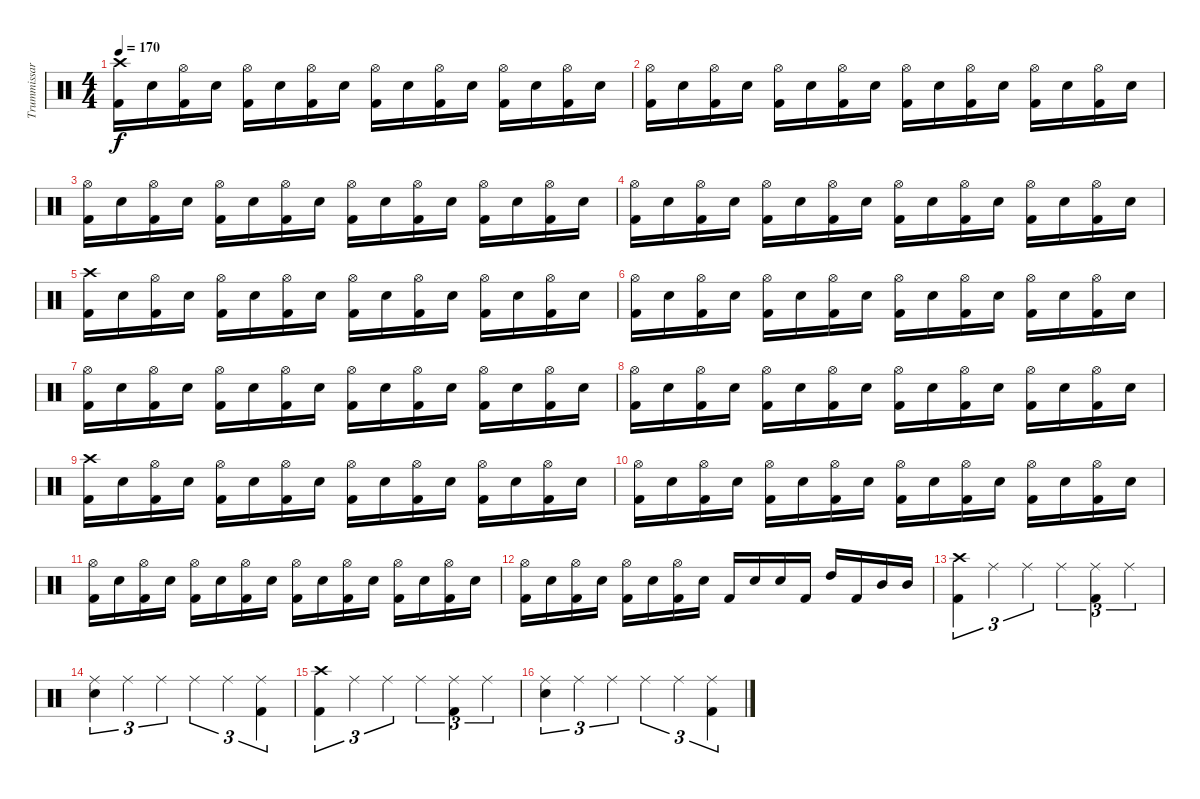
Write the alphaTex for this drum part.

\track ("Trummissar!!" "Trummissar") {instrument percussion}
\staff {score}
\articulation defaults
\ts (4 4)
\tempo 170
\clef neutral
\ks c
("Crash high (hit)" "Kick (hit) 2").16{dy f} "Electric Snare (hit)".16 ("Hi-Hat (open)" "Kick (hit) 2").16 "Electric Snare (hit)".16 ("Hi-Hat (open)" "Kick (hit) 2").16 "Electric Snare (hit)".16 ("Hi-Hat (open)" "Kick (hit) 2").16 "Electric Snare (hit)".16 ("Hi-Hat (open)" "Kick (hit) 2").16 "Electric Snare (hit)".16 ("Hi-Hat (open)" "Kick (hit) 2").16 "Electric Snare (hit)".16 ("Hi-Hat (open)" "Kick (hit) 2").16 "Electric Snare (hit)".16 ("Hi-Hat (open)" "Kick (hit) 2").16 "Electric Snare (hit)".16 |
("Hi-Hat (open)" "Kick (hit) 2").16 "Electric Snare (hit)".16 ("Hi-Hat (open)" "Kick (hit) 2").16 "Electric Snare (hit)".16 ("Hi-Hat (open)" "Kick (hit) 2").16 "Electric Snare (hit)".16 ("Hi-Hat (open)" "Kick (hit) 2").16 "Electric Snare (hit)".16 ("Hi-Hat (open)" "Kick (hit) 2").16 "Electric Snare (hit)".16 ("Hi-Hat (open)" "Kick (hit) 2").16 "Electric Snare (hit)".16 ("Hi-Hat (open)" "Kick (hit) 2").16 "Electric Snare (hit)".16 ("Hi-Hat (open)" "Kick (hit) 2").16 "Electric Snare (hit)".16 |
("Hi-Hat (open)" "Kick (hit) 2").16 "Electric Snare (hit)".16 ("Hi-Hat (open)" "Kick (hit) 2").16 "Electric Snare (hit)".16 ("Hi-Hat (open)" "Kick (hit) 2").16 "Electric Snare (hit)".16 ("Hi-Hat (open)" "Kick (hit) 2").16 "Electric Snare (hit)".16 ("Hi-Hat (open)" "Kick (hit) 2").16 "Electric Snare (hit)".16 ("Hi-Hat (open)" "Kick (hit) 2").16 "Electric Snare (hit)".16 ("Hi-Hat (open)" "Kick (hit) 2").16 "Electric Snare (hit)".16 ("Hi-Hat (open)" "Kick (hit) 2").16 "Electric Snare (hit)".16 |
("Hi-Hat (open)" "Kick (hit) 2").16 "Electric Snare (hit)".16 ("Hi-Hat (open)" "Kick (hit) 2").16 "Electric Snare (hit)".16 ("Hi-Hat (open)" "Kick (hit) 2").16 "Electric Snare (hit)".16 ("Hi-Hat (open)" "Kick (hit) 2").16 "Electric Snare (hit)".16 ("Hi-Hat (open)" "Kick (hit) 2").16 "Electric Snare (hit)".16 ("Hi-Hat (open)" "Kick (hit) 2").16 "Electric Snare (hit)".16 ("Hi-Hat (open)" "Kick (hit) 2").16 "Electric Snare (hit)".16 ("Hi-Hat (open)" "Kick (hit) 2").16 "Electric Snare (hit)".16 |
("Crash high (hit)" "Kick (hit) 2").16 "Electric Snare (hit)".16 ("Hi-Hat (open)" "Kick (hit) 2").16 "Electric Snare (hit)".16 ("Hi-Hat (open)" "Kick (hit) 2").16 "Electric Snare (hit)".16 ("Hi-Hat (open)" "Kick (hit) 2").16 "Electric Snare (hit)".16 ("Hi-Hat (open)" "Kick (hit) 2").16 "Electric Snare (hit)".16 ("Hi-Hat (open)" "Kick (hit) 2").16 "Electric Snare (hit)".16 ("Hi-Hat (open)" "Kick (hit) 2").16 "Electric Snare (hit)".16 ("Hi-Hat (open)" "Kick (hit) 2").16 "Electric Snare (hit)".16 |
("Hi-Hat (open)" "Kick (hit) 2").16 "Electric Snare (hit)".16 ("Hi-Hat (open)" "Kick (hit) 2").16 "Electric Snare (hit)".16 ("Hi-Hat (open)" "Kick (hit) 2").16 "Electric Snare (hit)".16 ("Hi-Hat (open)" "Kick (hit) 2").16 "Electric Snare (hit)".16 ("Hi-Hat (open)" "Kick (hit) 2").16 "Electric Snare (hit)".16 ("Hi-Hat (open)" "Kick (hit) 2").16 "Electric Snare (hit)".16 ("Hi-Hat (open)" "Kick (hit) 2").16 "Electric Snare (hit)".16 ("Hi-Hat (open)" "Kick (hit) 2").16 "Electric Snare (hit)".16 |
("Hi-Hat (open)" "Kick (hit) 2").16 "Electric Snare (hit)".16 ("Hi-Hat (open)" "Kick (hit) 2").16 "Electric Snare (hit)".16 ("Hi-Hat (open)" "Kick (hit) 2").16 "Electric Snare (hit)".16 ("Hi-Hat (open)" "Kick (hit) 2").16 "Electric Snare (hit)".16 ("Hi-Hat (open)" "Kick (hit) 2").16 "Electric Snare (hit)".16 ("Hi-Hat (open)" "Kick (hit) 2").16 "Electric Snare (hit)".16 ("Hi-Hat (open)" "Kick (hit) 2").16 "Electric Snare (hit)".16 ("Hi-Hat (open)" "Kick (hit) 2").16 "Electric Snare (hit)".16 |
("Hi-Hat (open)" "Kick (hit) 2").16 "Electric Snare (hit)".16 ("Hi-Hat (open)" "Kick (hit) 2").16 "Electric Snare (hit)".16 ("Hi-Hat (open)" "Kick (hit) 2").16 "Electric Snare (hit)".16 ("Hi-Hat (open)" "Kick (hit) 2").16 "Electric Snare (hit)".16 ("Hi-Hat (open)" "Kick (hit) 2").16 "Electric Snare (hit)".16 ("Hi-Hat (open)" "Kick (hit) 2").16 "Electric Snare (hit)".16 ("Hi-Hat (open)" "Kick (hit) 2").16 "Electric Snare (hit)".16 ("Hi-Hat (open)" "Kick (hit) 2").16 "Electric Snare (hit)".16 |
("Crash high (hit)" "Kick (hit) 2").16 "Electric Snare (hit)".16 ("Hi-Hat (open)" "Kick (hit) 2").16 "Electric Snare (hit)".16 ("Hi-Hat (open)" "Kick (hit) 2").16 "Electric Snare (hit)".16 ("Hi-Hat (open)" "Kick (hit) 2").16 "Electric Snare (hit)".16 ("Hi-Hat (open)" "Kick (hit) 2").16 "Electric Snare (hit)".16 ("Hi-Hat (open)" "Kick (hit) 2").16 "Electric Snare (hit)".16 ("Hi-Hat (open)" "Kick (hit) 2").16 "Electric Snare (hit)".16 ("Hi-Hat (open)" "Kick (hit) 2").16 "Electric Snare (hit)".16 |
("Hi-Hat (open)" "Kick (hit) 2").16 "Electric Snare (hit)".16 ("Hi-Hat (open)" "Kick (hit) 2").16 "Electric Snare (hit)".16 ("Hi-Hat (open)" "Kick (hit) 2").16 "Electric Snare (hit)".16 ("Hi-Hat (open)" "Kick (hit) 2").16 "Electric Snare (hit)".16 ("Hi-Hat (open)" "Kick (hit) 2").16 "Electric Snare (hit)".16 ("Hi-Hat (open)" "Kick (hit) 2").16 "Electric Snare (hit)".16 ("Hi-Hat (open)" "Kick (hit) 2").16 "Electric Snare (hit)".16 ("Hi-Hat (open)" "Kick (hit) 2").16 "Electric Snare (hit)".16 |
("Hi-Hat (open)" "Kick (hit) 2").16 "Electric Snare (hit)".16 ("Hi-Hat (open)" "Kick (hit) 2").16 "Electric Snare (hit)".16 ("Hi-Hat (open)" "Kick (hit) 2").16 "Electric Snare (hit)".16 ("Hi-Hat (open)" "Kick (hit) 2").16 "Electric Snare (hit)".16 ("Hi-Hat (open)" "Kick (hit) 2").16 "Electric Snare (hit)".16 ("Hi-Hat (open)" "Kick (hit) 2").16 "Electric Snare (hit)".16 ("Hi-Hat (open)" "Kick (hit) 2").16 "Electric Snare (hit)".16 ("Hi-Hat (open)" "Kick (hit) 2").16 "Electric Snare (hit)".16 |
("Hi-Hat (open)" "Kick (hit) 2").16 "Electric Snare (hit)".16 ("Hi-Hat (open)" "Kick (hit) 2").16 "Electric Snare (hit)".16 ("Hi-Hat (open)" "Kick (hit) 2").16 "Electric Snare (hit)".16 ("Hi-Hat (open)" "Kick (hit) 2").16 "Electric Snare (hit)".16 "Kick (hit) 2".16 "Electric Snare (hit)".16 "Electric Snare (hit)".16 "Kick (hit) 2".16 "High Tom (hit)".16 "Kick (hit) 2".16 "Mid Tom (hit)".16 "Mid Tom (hit)".16 |
("Crash high (hit)" "Kick (hit) 2").4{tu (3 2)} "Ride (middle)".4{tu (3 2)} "Ride (middle)".4{tu (3 2)} "Ride (middle)".4{tu (3 2)} ("Ride (middle)" "Kick (hit) 2").4{tu (3 2)} "Ride (middle)".4{tu (3 2)} |
("Ride (middle)" "Electric Snare (hit)").4{tu (3 2)} "Ride (middle)".4{tu (3 2)} "Ride (middle)".4{tu (3 2)} "Ride (middle)".4{tu (3 2)} "Ride (middle)".4{tu (3 2)} ("Ride (middle)" "Kick (hit) 2").4{tu (3 2)} |
("Crash high (hit)" "Kick (hit) 2").4{tu (3 2)} "Ride (middle)".4{tu (3 2)} "Ride (middle)".4{tu (3 2)} "Ride (middle)".4{tu (3 2)} ("Ride (middle)" "Kick (hit) 2").4{tu (3 2)} "Ride (middle)".4{tu (3 2)} |
("Ride (middle)" "Electric Snare (hit)").4{tu (3 2)} "Ride (middle)".4{tu (3 2)} "Ride (middle)".4{tu (3 2)} "Ride (middle)".4{tu (3 2)} "Ride (middle)".4{tu (3 2)} ("Ride (middle)" "Kick (hit) 2").4{tu (3 2)}
